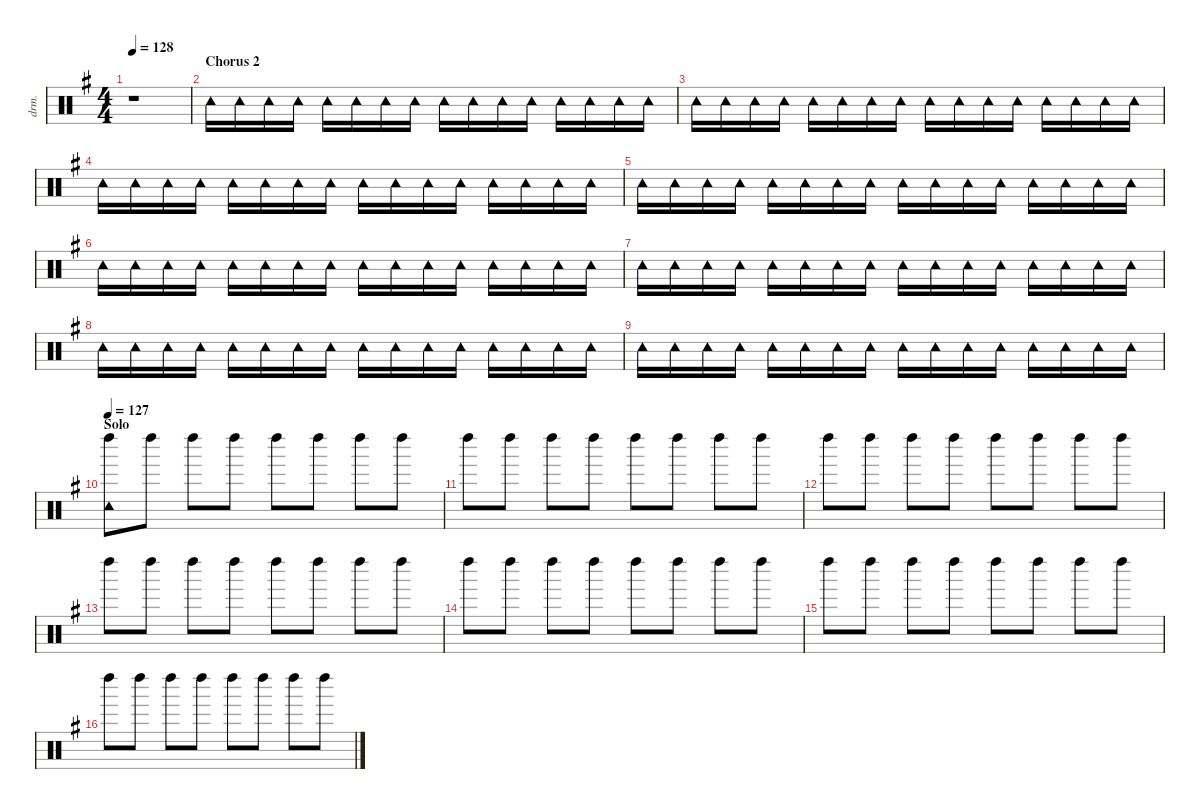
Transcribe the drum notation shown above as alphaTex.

\defaultSystemsLayout 4
\hideDynamics
\bracketExtendMode nobrackets
\otherSystemsTrackNameOrientation horizontal
\track ("Percussion" "drm.") {defaultSystemsLayout 8 instrument percussion}
\staff {score}
\articulation defaults
\ts (4 4)
\tempo 128
\clef neutral
\ks eminor
r.1{dy fff beam Down} |
\section ("" "Chorus 2")
"Tambourine (hit)"{acc forcenatural}.16{dy f beam Down} "Tambourine (hit)"{acc forcenatural}.16{beam Down} "Tambourine (hit)"{acc forcenatural}.16{beam Down} "Tambourine (hit)"{acc forcenatural}.16{beam Down} "Tambourine (hit)"{acc forcenatural}.16{dy fff beam Down} "Tambourine (hit)"{acc forcenatural}.16{dy f beam Down} "Tambourine (hit)"{acc forcenatural}.16{beam Down} "Tambourine (hit)"{acc forcenatural}.16{beam Down} "Tambourine (hit)"{acc forcenatural}.16{beam Down} "Tambourine (hit)"{acc forcenatural}.16{beam Down} "Tambourine (hit)"{acc forcenatural}.16{beam Down} "Tambourine (hit)"{acc forcenatural}.16{beam Down} "Tambourine (hit)"{acc forcenatural}.16{dy fff beam Down} "Tambourine (hit)"{acc forcenatural}.16{dy f beam Down} "Tambourine (hit)"{acc forcenatural}.16{beam Down} "Tambourine (hit)"{acc forcenatural}.16{beam Down} |
"Tambourine (hit)"{acc forcenatural}.16{beam Down} "Tambourine (hit)"{acc forcenatural}.16{beam Down} "Tambourine (hit)"{acc forcenatural}.16{beam Down} "Tambourine (hit)"{acc forcenatural}.16{beam Down} "Tambourine (hit)"{acc forcenatural}.16{dy fff beam Down} "Tambourine (hit)"{acc forcenatural}.16{dy f beam Down} "Tambourine (hit)"{acc forcenatural}.16{beam Down} "Tambourine (hit)"{acc forcenatural}.16{beam Down} "Tambourine (hit)"{acc forcenatural}.16{beam Down} "Tambourine (hit)"{acc forcenatural}.16{beam Down} "Tambourine (hit)"{acc forcenatural}.16{beam Down} "Tambourine (hit)"{acc forcenatural}.16{beam Down} "Tambourine (hit)"{acc forcenatural}.16{dy fff beam Down} "Tambourine (hit)"{acc forcenatural}.16{dy f beam Down} "Tambourine (hit)"{acc forcenatural}.16{beam Down} "Tambourine (hit)"{acc forcenatural}.16{beam Down} |
"Tambourine (hit)"{acc forcenatural}.16{beam Down} "Tambourine (hit)"{acc forcenatural}.16{beam Down} "Tambourine (hit)"{acc forcenatural}.16{beam Down} "Tambourine (hit)"{acc forcenatural}.16{beam Down} "Tambourine (hit)"{acc forcenatural}.16{dy fff beam Down} "Tambourine (hit)"{acc forcenatural}.16{dy f beam Down} "Tambourine (hit)"{acc forcenatural}.16{beam Down} "Tambourine (hit)"{acc forcenatural}.16{beam Down} "Tambourine (hit)"{acc forcenatural}.16{beam Down} "Tambourine (hit)"{acc forcenatural}.16{beam Down} "Tambourine (hit)"{acc forcenatural}.16{beam Down} "Tambourine (hit)"{acc forcenatural}.16{beam Down} "Tambourine (hit)"{acc forcenatural}.16{dy fff beam Down} "Tambourine (hit)"{acc forcenatural}.16{dy f beam Down} "Tambourine (hit)"{acc forcenatural}.16{beam Down} "Tambourine (hit)"{acc forcenatural}.16{beam Down} |
"Tambourine (hit)"{acc forcenatural}.16{beam Down} "Tambourine (hit)"{acc forcenatural}.16{beam Down} "Tambourine (hit)"{acc forcenatural}.16{beam Down} "Tambourine (hit)"{acc forcenatural}.16{beam Down} "Tambourine (hit)"{acc forcenatural}.16{dy fff beam Down} "Tambourine (hit)"{acc forcenatural}.16{dy f beam Down} "Tambourine (hit)"{acc forcenatural}.16{beam Down} "Tambourine (hit)"{acc forcenatural}.16{beam Down} "Tambourine (hit)"{acc forcenatural}.16{beam Down} "Tambourine (hit)"{acc forcenatural}.16{beam Down} "Tambourine (hit)"{acc forcenatural}.16{beam Down} "Tambourine (hit)"{acc forcenatural}.16{beam Down} "Tambourine (hit)"{acc forcenatural}.16{dy fff beam Down} "Tambourine (hit)"{acc forcenatural}.16{dy f beam Down} "Tambourine (hit)"{acc forcenatural}.16{beam Down} "Tambourine (hit)"{acc forcenatural}.16{beam Down} |
"Tambourine (hit)"{acc forcenatural}.16{beam Down} "Tambourine (hit)"{acc forcenatural}.16{beam Down} "Tambourine (hit)"{acc forcenatural}.16{beam Down} "Tambourine (hit)"{acc forcenatural}.16{beam Down} "Tambourine (hit)"{acc forcenatural}.16{dy fff beam Down} "Tambourine (hit)"{acc forcenatural}.16{dy f beam Down} "Tambourine (hit)"{acc forcenatural}.16{beam Down} "Tambourine (hit)"{acc forcenatural}.16{beam Down} "Tambourine (hit)"{acc forcenatural}.16{beam Down} "Tambourine (hit)"{acc forcenatural}.16{beam Down} "Tambourine (hit)"{acc forcenatural}.16{beam Down} "Tambourine (hit)"{acc forcenatural}.16{beam Down} "Tambourine (hit)"{acc forcenatural}.16{dy fff beam Down} "Tambourine (hit)"{acc forcenatural}.16{dy f beam Down} "Tambourine (hit)"{acc forcenatural}.16{beam Down} "Tambourine (hit)"{acc forcenatural}.16{beam Down} |
"Tambourine (hit)"{acc forcenatural}.16{beam Down} "Tambourine (hit)"{acc forcenatural}.16{beam Down} "Tambourine (hit)"{acc forcenatural}.16{beam Down} "Tambourine (hit)"{acc forcenatural}.16{beam Down} "Tambourine (hit)"{acc forcenatural}.16{dy fff beam Down} "Tambourine (hit)"{acc forcenatural}.16{dy f beam Down} "Tambourine (hit)"{acc forcenatural}.16{beam Down} "Tambourine (hit)"{acc forcenatural}.16{beam Down} "Tambourine (hit)"{acc forcenatural}.16{beam Down} "Tambourine (hit)"{acc forcenatural}.16{beam Down} "Tambourine (hit)"{acc forcenatural}.16{beam Down} "Tambourine (hit)"{acc forcenatural}.16{beam Down} "Tambourine (hit)"{acc forcenatural}.16{dy fff beam Down} "Tambourine (hit)"{acc forcenatural}.16{dy f beam Down} "Tambourine (hit)"{acc forcenatural}.16{beam Down} "Tambourine (hit)"{acc forcenatural}.16{beam Down} |
"Tambourine (hit)"{acc forcenatural}.16{beam Down} "Tambourine (hit)"{acc forcenatural}.16{beam Down} "Tambourine (hit)"{acc forcenatural}.16{beam Down} "Tambourine (hit)"{acc forcenatural}.16{beam Down} "Tambourine (hit)"{acc forcenatural}.16{dy fff beam Down} "Tambourine (hit)"{acc forcenatural}.16{dy f beam Down} "Tambourine (hit)"{acc forcenatural}.16{beam Down} "Tambourine (hit)"{acc forcenatural}.16{beam Down} "Tambourine (hit)"{acc forcenatural}.16{beam Down} "Tambourine (hit)"{acc forcenatural}.16{beam Down} "Tambourine (hit)"{acc forcenatural}.16{beam Down} "Tambourine (hit)"{acc forcenatural}.16{beam Down} "Tambourine (hit)"{acc forcenatural}.16{dy fff beam Down} "Tambourine (hit)"{acc forcenatural}.16{dy f beam Down} "Tambourine (hit)"{acc forcenatural}.16{beam Down} "Tambourine (hit)"{acc forcenatural}.16{beam Down} |
"Tambourine (hit)"{acc forcenatural}.16{beam Down} "Tambourine (hit)"{acc forcenatural}.16{beam Down} "Tambourine (hit)"{acc forcenatural}.16{beam Down} "Tambourine (hit)"{acc forcenatural}.16{beam Down} "Tambourine (hit)"{acc forcenatural}.16{dy fff beam Down} "Tambourine (hit)"{acc forcenatural}.16{dy f beam Down} "Tambourine (hit)"{acc forcenatural}.16{beam Down} "Tambourine (hit)"{acc forcenatural}.16{beam Down} "Tambourine (hit)"{acc forcenatural}.16{beam Down} "Tambourine (hit)"{acc forcenatural}.16{beam Down} "Tambourine (hit)"{acc forcenatural}.16{beam Down} "Tambourine (hit)"{acc forcenatural}.16{beam Down} "Tambourine (hit)"{acc forcenatural}.16{dy fff beam Down} "Tambourine (hit)"{acc forcenatural}.16{dy f beam Down} "Tambourine (hit)"{acc forcenatural}.16{beam Down} "Tambourine (hit)"{acc forcenatural}.16{beam Down} |
\section ("" "Solo")
\tempo 127
("Left Maraca (hit)"{acc forcenatural} "Tambourine (hit)"{acc forcenatural}).8{beam Down} "Left Maraca (hit)"{acc forcenatural}.8{beam Down} "Left Maraca (hit)"{acc forcenatural}.8{dy fff beam Down} "Left Maraca (hit)"{acc forcenatural}.8{dy f beam Down} "Left Maraca (hit)"{acc forcenatural}.8{beam Down} "Left Maraca (hit)"{acc forcenatural}.8{beam Down} "Left Maraca (hit)"{acc forcenatural}.8{dy fff beam Down} "Left Maraca (hit)"{acc forcenatural}.8{dy f beam Down} |
"Left Maraca (hit)"{acc forcenatural}.8{beam Down} "Left Maraca (hit)"{acc forcenatural}.8{beam Down} "Left Maraca (hit)"{acc forcenatural}.8{dy fff beam Down} "Left Maraca (hit)"{acc forcenatural}.8{dy f beam Down} "Left Maraca (hit)"{acc forcenatural}.8{beam Down} "Left Maraca (hit)"{acc forcenatural}.8{beam Down} "Left Maraca (hit)"{acc forcenatural}.8{dy fff beam Down} "Left Maraca (hit)"{acc forcenatural}.8{dy f beam Down} |
"Left Maraca (hit)"{acc forcenatural}.8{beam Down} "Left Maraca (hit)"{acc forcenatural}.8{beam Down} "Left Maraca (hit)"{acc forcenatural}.8{dy fff beam Down} "Left Maraca (hit)"{acc forcenatural}.8{dy f beam Down} "Left Maraca (hit)"{acc forcenatural}.8{beam Down} "Left Maraca (hit)"{acc forcenatural}.8{beam Down} "Left Maraca (hit)"{acc forcenatural}.8{dy fff beam Down} "Left Maraca (hit)"{acc forcenatural}.8{dy f beam Down} |
"Left Maraca (hit)"{acc forcenatural}.8{beam Down} "Left Maraca (hit)"{acc forcenatural}.8{beam Down} "Left Maraca (hit)"{acc forcenatural}.8{dy fff beam Down} "Left Maraca (hit)"{acc forcenatural}.8{dy f beam Down} "Left Maraca (hit)"{acc forcenatural}.8{beam Down} "Left Maraca (hit)"{acc forcenatural}.8{beam Down} "Left Maraca (hit)"{acc forcenatural}.8{dy fff beam Down} "Left Maraca (hit)"{acc forcenatural}.8{dy f beam Down} |
"Left Maraca (hit)"{acc forcenatural}.8{beam Down} "Left Maraca (hit)"{acc forcenatural}.8{beam Down} "Left Maraca (hit)"{acc forcenatural}.8{dy fff beam Down} "Left Maraca (hit)"{acc forcenatural}.8{dy f beam Down} "Left Maraca (hit)"{acc forcenatural}.8{beam Down} "Left Maraca (hit)"{acc forcenatural}.8{beam Down} "Left Maraca (hit)"{acc forcenatural}.8{dy fff beam Down} "Left Maraca (hit)"{acc forcenatural}.8{dy f beam Down} |
"Left Maraca (hit)"{acc forcenatural}.8{beam Down} "Left Maraca (hit)"{acc forcenatural}.8{beam Down} "Left Maraca (hit)"{acc forcenatural}.8{dy fff beam Down} "Left Maraca (hit)"{acc forcenatural}.8{dy f beam Down} "Left Maraca (hit)"{acc forcenatural}.8{beam Down} "Left Maraca (hit)"{acc forcenatural}.8{beam Down} "Left Maraca (hit)"{acc forcenatural}.8{dy fff beam Down} "Left Maraca (hit)"{acc forcenatural}.8{dy f beam Down} |
"Left Maraca (hit)"{acc forcenatural}.8{beam Down} "Left Maraca (hit)"{acc forcenatural}.8{beam Down} "Left Maraca (hit)"{acc forcenatural}.8{dy fff beam Down} "Left Maraca (hit)"{acc forcenatural}.8{dy f beam Down} "Left Maraca (hit)"{acc forcenatural}.8{beam Down} "Left Maraca (hit)"{acc forcenatural}.8{beam Down} "Left Maraca (hit)"{acc forcenatural}.8{dy fff beam Down} "Left Maraca (hit)"{acc forcenatural}.8{dy f beam Down}
